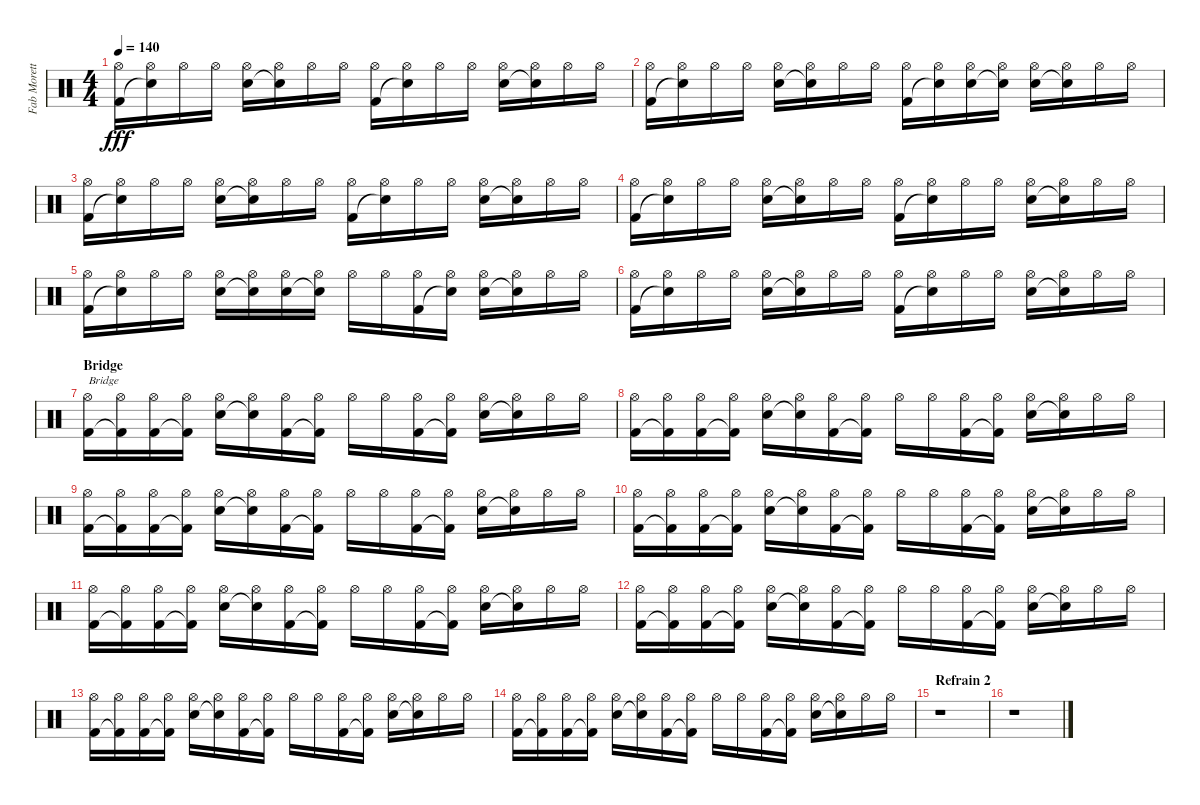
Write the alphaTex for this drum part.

\track ("Fab Moretti" "Fab Morett") {instrument percussion}
\staff {score}
\articulation defaults
\ts (4 4)
\tempo 140
\clef neutral
\ks c
("Hi-Hat (open)" "Kick (hit) 2").16{dy fff} ("Hi-Hat (open)" "Snare (hit) 2"{t}).16 "Hi-Hat (open)".16 "Hi-Hat (open)".16 ("Hi-Hat (open)" "Snare (hit) 2").16 ("Hi-Hat (open)" "Snare (hit)"{t}).16 "Hi-Hat (open)".16 "Hi-Hat (open)".16 ("Hi-Hat (open)" "Kick (hit) 2").16 ("Hi-Hat (open)" "Snare (hit)"{t}).16 "Hi-Hat (open)".16 "Hi-Hat (open)".16 ("Hi-Hat (open)" "Snare (hit) 2").16 ("Hi-Hat (open)" "Snare (hit)"{t}).16 "Hi-Hat (open)".16 "Hi-Hat (open)".16 |
("Hi-Hat (open)" "Kick (hit) 2").16 ("Hi-Hat (open)" "Snare (hit) 2"{t}).16 "Hi-Hat (open)".16 "Hi-Hat (open)".16 ("Hi-Hat (open)" "Snare (hit) 2").16 ("Hi-Hat (open)" "Snare (hit)"{t}).16 "Hi-Hat (open)".16 "Hi-Hat (open)".16 ("Hi-Hat (open)" "Kick (hit) 2").16 ("Hi-Hat (open)" "Snare (hit)"{t}).16 ("Hi-Hat (open)" "Snare (hit) 2").16 ("Hi-Hat (open)" "Snare (hit)"{t}).16 ("Hi-Hat (open)" "Snare (hit) 2").16 ("Hi-Hat (open)" "Snare (hit)"{t}).16 "Hi-Hat (open)".16 "Hi-Hat (open)".16 |
("Hi-Hat (open)" "Kick (hit) 2").16 ("Hi-Hat (open)" "Snare (hit) 2"{t}).16 "Hi-Hat (open)".16 "Hi-Hat (open)".16 ("Hi-Hat (open)" "Snare (hit) 2").16 ("Hi-Hat (open)" "Snare (hit)"{t}).16 "Hi-Hat (open)".16 "Hi-Hat (open)".16 ("Hi-Hat (open)" "Kick (hit) 2").16 ("Hi-Hat (open)" "Snare (hit)"{t}).16 "Hi-Hat (open)".16 "Hi-Hat (open)".16 ("Hi-Hat (open)" "Snare (hit) 2").16 ("Hi-Hat (open)" "Snare (hit)"{t}).16 "Hi-Hat (open)".16 "Hi-Hat (open)".16 |
("Hi-Hat (open)" "Kick (hit) 2").16 ("Hi-Hat (open)" "Snare (hit) 2"{t}).16 "Hi-Hat (open)".16 "Hi-Hat (open)".16 ("Hi-Hat (open)" "Snare (hit) 2").16 ("Hi-Hat (open)" "Snare (hit)"{t}).16 "Hi-Hat (open)".16 "Hi-Hat (open)".16 ("Hi-Hat (open)" "Kick (hit) 2").16 ("Hi-Hat (open)" "Snare (hit)"{t}).16 "Hi-Hat (open)".16 "Hi-Hat (open)".16 ("Hi-Hat (open)" "Snare (hit) 2").16 ("Hi-Hat (open)" "Snare (hit)"{t}).16 "Hi-Hat (open)".16 "Hi-Hat (open)".16 |
("Hi-Hat (open)" "Kick (hit) 2").16 ("Hi-Hat (open)" "Snare (hit) 2"{t}).16 "Hi-Hat (open)".16 "Hi-Hat (open)".16 ("Hi-Hat (open)" "Snare (hit) 2").16 ("Hi-Hat (open)" "Snare (hit)"{t}).16 ("Hi-Hat (open)" "Snare (hit) 2").16 ("Hi-Hat (open)" "Snare (hit)"{t}).16 "Hi-Hat (open)".16 "Hi-Hat (open)".16 ("Hi-Hat (open)" "Kick (hit) 2").16 ("Hi-Hat (open)" "Snare (hit)"{t}).16 ("Hi-Hat (open)" "Snare (hit) 2").16 ("Hi-Hat (open)" "Snare (hit)"{t}).16 "Hi-Hat (open)".16 "Hi-Hat (open)".16 |
("Hi-Hat (open)" "Kick (hit) 2").16 ("Hi-Hat (open)" "Snare (hit) 2"{t}).16 "Hi-Hat (open)".16 "Hi-Hat (open)".16 ("Hi-Hat (open)" "Snare (hit) 2").16 ("Hi-Hat (open)" "Snare (hit)"{t}).16 "Hi-Hat (open)".16 "Hi-Hat (open)".16 ("Hi-Hat (open)" "Kick (hit) 2").16 ("Hi-Hat (open)" "Snare (hit)"{t}).16 "Hi-Hat (open)".16 "Hi-Hat (open)".16 ("Hi-Hat (open)" "Snare (hit) 2").16 ("Hi-Hat (open)" "Snare (hit)"{t}).16 "Hi-Hat (open)".16 "Hi-Hat (open)".16 |
\section ("" "Bridge")
("Hi-Hat (open)" "Kick (hit) 2").16{txt "Bridge"} ("Hi-Hat (open)" "Kick (hit) 2"{t}).16 ("Hi-Hat (open)" "Kick (hit) 2").16 ("Hi-Hat (open)" "Kick (hit) 2"{t}).16 ("Hi-Hat (open)" "Snare (hit) 2").16 ("Hi-Hat (open)" "Snare (hit) 2"{t}).16 ("Hi-Hat (open)" "Kick (hit) 2").16 ("Hi-Hat (open)" "Kick (hit) 2"{t}).16 "Hi-Hat (open)".16 "Hi-Hat (open)".16 ("Hi-Hat (open)" "Kick (hit) 2").16 ("Hi-Hat (open)" "Kick (hit) 2"{t}).16 ("Hi-Hat (open)" "Snare (hit) 2").16 ("Hi-Hat (open)" "Snare (hit) 2"{t}).16 "Hi-Hat (open)".16 "Hi-Hat (open)".16 |
("Hi-Hat (open)" "Kick (hit) 2").16 ("Hi-Hat (open)" "Kick (hit) 2"{t}).16 ("Hi-Hat (open)" "Kick (hit) 2").16 ("Hi-Hat (open)" "Kick (hit) 2"{t}).16 ("Hi-Hat (open)" "Snare (hit) 2").16 ("Hi-Hat (open)" "Snare (hit) 2"{t}).16 ("Hi-Hat (open)" "Kick (hit) 2").16 ("Hi-Hat (open)" "Kick (hit) 2"{t}).16 "Hi-Hat (open)".16 "Hi-Hat (open)".16 ("Hi-Hat (open)" "Kick (hit) 2").16 ("Hi-Hat (open)" "Kick (hit) 2"{t}).16 ("Hi-Hat (open)" "Snare (hit) 2").16 ("Hi-Hat (open)" "Snare (hit) 2"{t}).16 "Hi-Hat (open)".16 "Hi-Hat (open)".16 |
("Hi-Hat (open)" "Kick (hit) 2").16 ("Hi-Hat (open)" "Kick (hit) 2"{t}).16 ("Hi-Hat (open)" "Kick (hit) 2").16 ("Hi-Hat (open)" "Kick (hit) 2"{t}).16 ("Hi-Hat (open)" "Snare (hit) 2").16 ("Hi-Hat (open)" "Snare (hit) 2"{t}).16 ("Hi-Hat (open)" "Kick (hit) 2").16 ("Hi-Hat (open)" "Kick (hit) 2"{t}).16 "Hi-Hat (open)".16 "Hi-Hat (open)".16 ("Hi-Hat (open)" "Kick (hit) 2").16 ("Hi-Hat (open)" "Kick (hit) 2"{t}).16 ("Hi-Hat (open)" "Snare (hit) 2").16 ("Hi-Hat (open)" "Snare (hit) 2"{t}).16 "Hi-Hat (open)".16 "Hi-Hat (open)".16 |
("Hi-Hat (open)" "Kick (hit) 2").16 ("Hi-Hat (open)" "Kick (hit) 2"{t}).16 ("Hi-Hat (open)" "Kick (hit) 2").16 ("Hi-Hat (open)" "Kick (hit) 2"{t}).16 ("Hi-Hat (open)" "Snare (hit) 2").16 ("Hi-Hat (open)" "Snare (hit) 2"{t}).16 ("Hi-Hat (open)" "Kick (hit) 2").16 ("Hi-Hat (open)" "Kick (hit) 2"{t}).16 "Hi-Hat (open)".16 "Hi-Hat (open)".16 ("Hi-Hat (open)" "Kick (hit) 2").16 ("Hi-Hat (open)" "Kick (hit) 2"{t}).16 ("Hi-Hat (open)" "Snare (hit) 2").16 ("Hi-Hat (open)" "Snare (hit) 2"{t}).16 "Hi-Hat (open)".16 "Hi-Hat (open)".16 |
("Hi-Hat (open)" "Kick (hit) 2").16 ("Hi-Hat (open)" "Kick (hit) 2"{t}).16 ("Hi-Hat (open)" "Kick (hit) 2").16 ("Hi-Hat (open)" "Kick (hit) 2"{t}).16 ("Hi-Hat (open)" "Snare (hit) 2").16 ("Hi-Hat (open)" "Snare (hit) 2"{t}).16 ("Hi-Hat (open)" "Kick (hit) 2").16 ("Hi-Hat (open)" "Kick (hit) 2"{t}).16 "Hi-Hat (open)".16 "Hi-Hat (open)".16 ("Hi-Hat (open)" "Kick (hit) 2").16 ("Hi-Hat (open)" "Kick (hit) 2"{t}).16 ("Hi-Hat (open)" "Snare (hit) 2").16 ("Hi-Hat (open)" "Snare (hit) 2"{t}).16 "Hi-Hat (open)".16 "Hi-Hat (open)".16 |
("Hi-Hat (open)" "Kick (hit) 2").16 ("Hi-Hat (open)" "Kick (hit) 2"{t}).16 ("Hi-Hat (open)" "Kick (hit) 2").16 ("Hi-Hat (open)" "Kick (hit) 2"{t}).16 ("Hi-Hat (open)" "Snare (hit) 2").16 ("Hi-Hat (open)" "Snare (hit) 2"{t}).16 ("Hi-Hat (open)" "Kick (hit) 2").16 ("Hi-Hat (open)" "Kick (hit) 2"{t}).16 "Hi-Hat (open)".16 "Hi-Hat (open)".16 ("Hi-Hat (open)" "Kick (hit) 2").16 ("Hi-Hat (open)" "Kick (hit) 2"{t}).16 ("Hi-Hat (open)" "Snare (hit) 2").16 ("Hi-Hat (open)" "Snare (hit) 2"{t}).16 "Hi-Hat (open)".16 "Hi-Hat (open)".16 |
("Hi-Hat (open)" "Kick (hit) 2").16 ("Hi-Hat (open)" "Kick (hit) 2"{t}).16 ("Hi-Hat (open)" "Kick (hit) 2").16 ("Hi-Hat (open)" "Kick (hit) 2"{t}).16 ("Hi-Hat (open)" "Snare (hit) 2").16 ("Hi-Hat (open)" "Snare (hit) 2"{t}).16 ("Hi-Hat (open)" "Kick (hit) 2").16 ("Hi-Hat (open)" "Kick (hit) 2"{t}).16 "Hi-Hat (open)".16 "Hi-Hat (open)".16 ("Hi-Hat (open)" "Kick (hit) 2").16 ("Hi-Hat (open)" "Kick (hit) 2"{t}).16 ("Hi-Hat (open)" "Snare (hit) 2").16 ("Hi-Hat (open)" "Snare (hit) 2"{t}).16 "Hi-Hat (open)".16 "Hi-Hat (open)".16 |
("Hi-Hat (open)" "Kick (hit) 2").16 ("Hi-Hat (open)" "Kick (hit) 2"{t}).16 ("Hi-Hat (open)" "Kick (hit) 2").16 ("Hi-Hat (open)" "Kick (hit) 2"{t}).16 ("Hi-Hat (open)" "Snare (hit) 2").16 ("Hi-Hat (open)" "Snare (hit) 2"{t}).16 ("Hi-Hat (open)" "Kick (hit) 2").16 ("Hi-Hat (open)" "Kick (hit) 2"{t}).16 "Hi-Hat (open)".16 "Hi-Hat (open)".16 ("Hi-Hat (open)" "Kick (hit) 2").16 ("Hi-Hat (open)" "Kick (hit) 2"{t}).16 ("Hi-Hat (open)" "Snare (hit) 2").16 ("Hi-Hat (open)" "Snare (hit) 2"{t}).16 "Hi-Hat (open)".16 "Hi-Hat (open)".16 |
\section ("" "Refrain 2")
r.1 |
r.1
